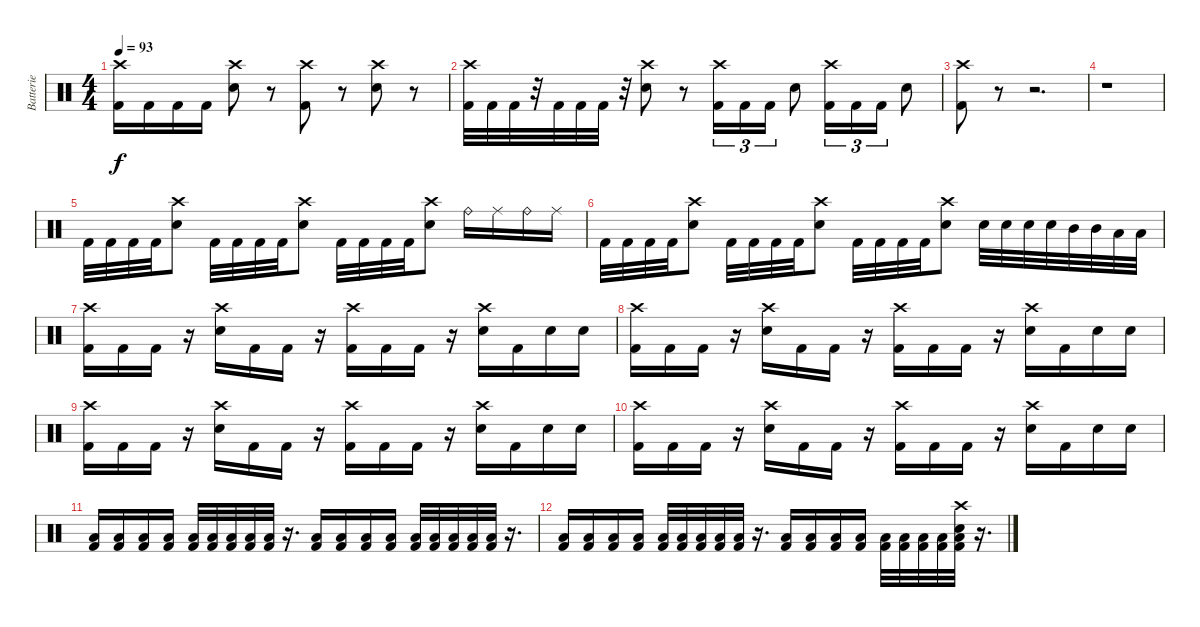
\track ("Batterie" "Batterie") {instrument percussion}
\staff {score}
\articulation defaults
\ts (4 4)
\tempo 93
\clef neutral
\ks c
("Crash high (hit)" "Kick (hit) 2").16{dy f} "Kick (hit) 2".16 "Kick (hit) 2".16 "Kick (hit) 2".16 ("Crash high (hit)" "Electric Snare (hit)").8 r.8 ("Crash high (hit)" "Kick (hit) 2").8 r.8 ("Crash high (hit)" "Electric Snare (hit)").8 r.8 |
("Crash high (hit)" "Kick (hit) 2").32 "Kick (hit) 2".32 "Kick (hit) 2".32 r.32 "Kick (hit) 2".32 "Kick (hit) 2".32 "Kick (hit) 2".32 r.32 ("Crash high (hit)" "Electric Snare (hit)").8 r.8 ("Crash high (hit)" "Kick (hit) 2").16{tu (3 2)} "Kick (hit) 2".16{tu (3 2)} "Kick (hit) 2".16{tu (3 2)} "Electric Snare (hit)".8 ("Crash high (hit)" "Kick (hit) 2").16{tu (3 2)} "Kick (hit) 2".16{tu (3 2)} "Kick (hit) 2".16{tu (3 2)} "Electric Snare (hit)".8 |
\section ("" "")
("Crash high (hit)" "Kick (hit) 2").8 r.8 r.2{d} |
r.1 |
"Kick (hit) 2".32 "Kick (hit) 2".32 "Kick (hit) 2".32 "Kick (hit) 2".32 ("Crash high (hit)" "Electric Snare (hit)").8 "Kick (hit) 2".32 "Kick (hit) 2".32 "Kick (hit) 2".32 "Kick (hit) 2".32 ("Crash high (hit)" "Electric Snare (hit)").8 "Kick (hit) 2".32 "Kick (hit) 2".32 "Kick (hit) 2".32 "Kick (hit) 2".32 ("Crash high (hit)" "Electric Snare (hit)").8 "Ride (bell)".16 "Ride (middle)".16 "Ride (bell)".16 "Ride (middle)".16 |
"Kick (hit) 2".32 "Kick (hit) 2".32 "Kick (hit) 2".32 "Kick (hit) 2".32 ("Crash high (hit)" "Electric Snare (hit)").8 "Kick (hit) 2".32 "Kick (hit) 2".32 "Kick (hit) 2".32 "Kick (hit) 2".32 ("Crash high (hit)" "Electric Snare (hit)").8 "Kick (hit) 2".32 "Kick (hit) 2".32 "Kick (hit) 2".32 "Kick (hit) 2".32 ("Crash high (hit)" "Electric Snare (hit)").8 "Electric Snare (hit)".32 "Electric Snare (hit)".32 "Electric Snare (hit)".32 "Electric Snare (hit)".32 "Mid Tom (hit)".32 "Mid Tom (hit)".32 "Low Tom (hit)".32 "Low Tom (hit)".32 |
("Crash high (hit)" "Kick (hit) 2").16 "Kick (hit) 2".16 "Kick (hit) 2".16 r.16 ("Crash high (hit)" "Electric Snare (hit)").16 "Kick (hit) 2".16 "Kick (hit) 2".16 r.16 ("Crash high (hit)" "Kick (hit) 2").16 "Kick (hit) 2".16 "Kick (hit) 2".16 r.16 ("Crash high (hit)" "Electric Snare (hit)").16 "Kick (hit) 2".16 "Electric Snare (hit)".16 "Electric Snare (hit)".16 |
("Crash high (hit)" "Kick (hit) 2").16 "Kick (hit) 2".16 "Kick (hit) 2".16 r.16 ("Crash high (hit)" "Electric Snare (hit)").16 "Kick (hit) 2".16 "Kick (hit) 2".16 r.16 ("Crash high (hit)" "Kick (hit) 2").16 "Kick (hit) 2".16 "Kick (hit) 2".16 r.16 ("Crash high (hit)" "Electric Snare (hit)").16 "Kick (hit) 2".16 "Electric Snare (hit)".16 "Electric Snare (hit)".16 |
("Crash high (hit)" "Kick (hit) 2").16 "Kick (hit) 2".16 "Kick (hit) 2".16 r.16 ("Crash high (hit)" "Electric Snare (hit)").16 "Kick (hit) 2".16 "Kick (hit) 2".16 r.16 ("Crash high (hit)" "Kick (hit) 2").16 "Kick (hit) 2".16 "Kick (hit) 2".16 r.16 ("Crash high (hit)" "Electric Snare (hit)").16 "Kick (hit) 2".16 "Electric Snare (hit)".16 "Electric Snare (hit)".16 |
("Crash high (hit)" "Kick (hit) 2").16 "Kick (hit) 2".16 "Kick (hit) 2".16 r.16 ("Crash high (hit)" "Electric Snare (hit)").16 "Kick (hit) 2".16 "Kick (hit) 2".16 r.16 ("Crash high (hit)" "Kick (hit) 2").16 "Kick (hit) 2".16 "Kick (hit) 2".16 r.16 ("Crash high (hit)" "Electric Snare (hit)").16 "Kick (hit) 2".16 "Electric Snare (hit)".16 "Electric Snare (hit)".16 |
\section ("" "")
("Low Tom (hit)" "Kick (hit) 2").16 ("Low Tom (hit)" "Kick (hit) 2").16 ("Low Tom (hit)" "Kick (hit) 2").16 ("Low Tom (hit)" "Kick (hit) 2").16 ("Low Tom (hit)" "Kick (hit) 2").32 ("Low Tom (hit)" "Kick (hit) 2").32 ("Low Tom (hit)" "Kick (hit) 2").32 ("Low Tom (hit)" "Kick (hit) 2").32 ("Low Tom (hit)" "Kick (hit) 2").32 r.16{d} ("Low Tom (hit)" "Kick (hit) 2").16 ("Low Tom (hit)" "Kick (hit) 2").16 ("Low Tom (hit)" "Kick (hit) 2").16 ("Low Tom (hit)" "Kick (hit) 2").16 ("Low Tom (hit)" "Kick (hit) 2").32 ("Low Tom (hit)" "Kick (hit) 2").32 ("Low Tom (hit)" "Kick (hit) 2").32 ("Low Tom (hit)" "Kick (hit) 2").32 ("Low Tom (hit)" "Kick (hit) 2").32 r.16{d} |
("Low Tom (hit)" "Kick (hit) 2").16 ("Low Tom (hit)" "Kick (hit) 2").16 ("Low Tom (hit)" "Kick (hit) 2").16 ("Low Tom (hit)" "Kick (hit) 2").16 ("Low Tom (hit)" "Kick (hit) 2").32 ("Low Tom (hit)" "Kick (hit) 2").32 ("Low Tom (hit)" "Kick (hit) 2").32 ("Low Tom (hit)" "Kick (hit) 2").32 ("Low Tom (hit)" "Kick (hit) 2").32 r.16{d} ("Low Tom (hit)" "Kick (hit) 2").16 ("Low Tom (hit)" "Kick (hit) 2").16 ("Low Tom (hit)" "Kick (hit) 2").16 ("Low Tom (hit)" "Kick (hit) 2").16 ("Low Tom (hit)" "Kick (hit) 2").32 ("Low Tom (hit)" "Kick (hit) 2").32 ("Low Tom (hit)" "Kick (hit) 2").32 ("Low Tom (hit)" "Kick (hit) 2").32 ("Crash high (hit)" "Electric Snare (hit)" "Low Tom (hit)" "Kick (hit) 2").32 r.16{d}
